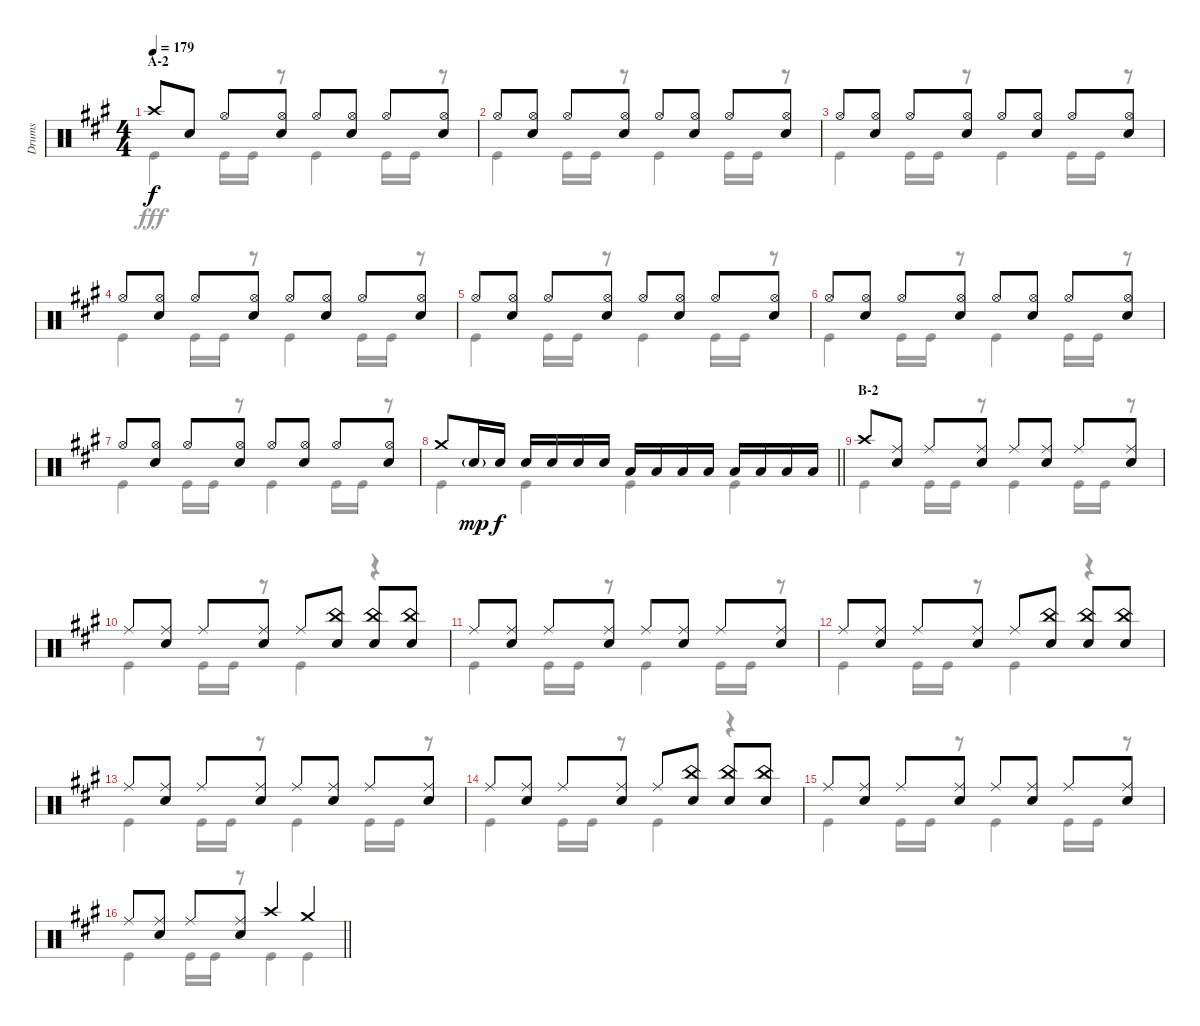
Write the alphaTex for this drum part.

\track ("Drums" "Drums") {instrument percussion}
\staff {score}
\articulation defaults
\voice
\ts (4 4)
\section ("" "A-2")
\tempo 179
\clef neutral
\ks a "Crash high (hit)".8{dy f} "Snare (hit) 2".8 "Hi-Hat (open)".8
("Hi-Hat (open)" "Snare (hit) 2").8 "Hi-Hat (open)".8 ("Hi-Hat (open)" "Snare (hit) 2").8 "Hi-Hat (open)".8 ("Hi-Hat (open)" "Snare (hit) 2").8 |
"Hi-Hat (open)".8 ("Hi-Hat (open)" "Snare (hit) 2").8 "Hi-Hat (open)".8 ("Hi-Hat (open)" "Snare (hit) 2").8 "Hi-Hat (open)".8 ("Hi-Hat (open)" "Snare (hit) 2").8 "Hi-Hat (open)".8 ("Hi-Hat (open)" "Snare (hit) 2").8 |
"Hi-Hat (open)".8 ("Hi-Hat (open)" "Snare (hit) 2").8 "Hi-Hat (open)".8 ("Hi-Hat (open)" "Snare (hit) 2").8 "Hi-Hat (open)".8 ("Hi-Hat (open)" "Snare (hit) 2").8 "Hi-Hat (open)".8 ("Hi-Hat (open)" "Snare (hit) 2").8 |
"Hi-Hat (open)".8 ("Hi-Hat (open)" "Snare (hit) 2").8 "Hi-Hat (open)".8 ("Hi-Hat (open)" "Snare (hit) 2").8 "Hi-Hat (open)".8 ("Hi-Hat (open)" "Snare (hit) 2").8 "Hi-Hat (open)".8 ("Hi-Hat (open)" "Snare (hit) 2").8 |
"Hi-Hat (open)".8 ("Hi-Hat (open)" "Snare (hit) 2").8 "Hi-Hat (open)".8 ("Hi-Hat (open)" "Snare (hit) 2").8 "Hi-Hat (open)".8 ("Hi-Hat (open)" "Snare (hit) 2").8 "Hi-Hat (open)".8 ("Hi-Hat (open)" "Snare (hit) 2").8 |
"Hi-Hat (open)".8 ("Hi-Hat (open)" "Snare (hit) 2").8 "Hi-Hat (open)".8 ("Hi-Hat (open)" "Snare (hit) 2").8 "Hi-Hat (open)".8 ("Hi-Hat (open)" "Snare (hit) 2").8 "Hi-Hat (open)".8 ("Hi-Hat (open)" "Snare (hit) 2").8 |
"Hi-Hat (open)".8 ("Hi-Hat (open)" "Snare (hit) 2").8 "Hi-Hat (open)".8 ("Hi-Hat (open)" "Snare (hit) 2").8 "Hi-Hat (open)".8 ("Hi-Hat (open)" "Snare (hit) 2").8 "Hi-Hat (open)".8 ("Hi-Hat (open)" "Snare (hit) 2").8 |
\barLineRight lightlight "Crash medium (hit)".8 "Snare (hit) 2"{g}.16{dy mp} "Snare (hit) 2".16{dy f} "Snare (hit) 2".16 "Snare (hit) 2".16 "Snare (hit) 2".16 "Snare (hit) 2".16 "Low Tom (hit)".16 "Low Tom (hit)".16 "Low Tom (hit)".16 "Low Tom (hit)".16 "Low Tom (hit)".16 "Low Tom (hit)".16 "Low Tom (hit)".16 "Low Tom (hit)".16
|
\section ("" "B-2")
"Crash high (hit)".8 ("Ride (middle)" "Snare (hit) 2").8 "Ride (middle)".8 ("Ride (middle)" "Snare (hit) 2").8 "Ride (middle)".8 ("Ride (middle)" "Snare (hit) 2").8 "Ride (middle)".8 ("Ride (middle)" "Snare (hit) 2").8 |
"Ride (middle)".8 ("Ride (middle)" "Snare (hit) 2").8 "Ride (middle)".8 ("Ride (middle)" "Snare (hit) 2").8 "Ride (middle)".8 ("China (hit)" "Snare (hit) 2").8 ("China (hit)" "Snare (hit) 2").8 ("China (hit)" "Snare (hit) 2").8 |
"Ride (middle)".8 ("Ride (middle)" "Snare (hit) 2").8 "Ride (middle)".8 ("Ride (middle)" "Snare (hit) 2").8 "Ride (middle)".8 ("Ride (middle)" "Snare (hit) 2").8 "Ride (middle)".8 ("Ride (middle)" "Snare (hit) 2").8 |
"Ride (middle)".8 ("Ride (middle)" "Snare (hit) 2").8 "Ride (middle)".8 ("Ride (middle)" "Snare (hit) 2").8 "Ride (middle)".8 ("China (hit)" "Snare (hit) 2").8 ("China (hit)" "Snare (hit) 2").8 ("China (hit)" "Snare (hit) 2").8 |
"Ride (middle)".8 ("Ride (middle)" "Snare (hit) 2").8 "Ride (middle)".8 ("Ride (middle)" "Snare (hit) 2").8 "Ride (middle)".8 ("Ride (middle)" "Snare (hit) 2").8 "Ride (middle)".8 ("Ride (middle)" "Snare (hit) 2").8 |
"Ride (middle)".8 ("Ride (middle)" "Snare (hit) 2").8 "Ride (middle)".8 ("Ride (middle)" "Snare (hit) 2").8 "Ride (middle)".8 ("China (hit)" "Snare (hit) 2").8 ("China (hit)" "Snare (hit) 2").8 ("China (hit)" "Snare (hit) 2").8 |
"Ride (middle)".8 ("Ride (middle)" "Snare (hit) 2").8 "Ride (middle)".8 ("Ride (middle)" "Snare (hit) 2").8 "Ride (middle)".8 ("Ride (middle)" "Snare (hit) 2").8 "Ride (middle)".8 ("Ride (middle)" "Snare (hit) 2").8 |
\barLineRight lightlight "Ride (middle)".8
("Ride (middle)" "Snare (hit) 2").8 "Ride (middle)".8 ("Ride (middle)" "Snare (hit) 2").8 "Crash high (hit)".4 "Crash medium (hit)".4
\voice
\clef neutral
\ottava regular
\simile none
\ks a "Kick (hit)".4{dy fff} "Kick (hit)".16 "Kick (hit)".16
r.8 "Kick (hit)".4 "Kick (hit)".16 "Kick (hit)".16 r.8 |
"Kick (hit)".4 "Kick (hit)".16 "Kick (hit)".16 r.8 "Kick (hit)".4 "Kick (hit)".16 "Kick (hit)".16 r.8 |
"Kick (hit)".4 "Kick (hit)".16 "Kick (hit)".16 r.8 "Kick (hit)".4 "Kick (hit)".16 "Kick (hit)".16 r.8 |
"Kick (hit)".4 "Kick (hit)".16 "Kick (hit)".16 r.8 "Kick (hit)".4 "Kick (hit)".16 "Kick (hit)".16 r.8 |
"Kick (hit)".4 "Kick (hit)".16 "Kick (hit)".16 r.8 "Kick (hit)".4 "Kick (hit)".16 "Kick (hit)".16 r.8 |
"Kick (hit)".4 "Kick (hit)".16 "Kick (hit)".16 r.8 "Kick (hit)".4 "Kick (hit)".16 "Kick (hit)".16 r.8 |
"Kick (hit)".4 "Kick (hit)".16 "Kick (hit)".16 r.8 "Kick (hit)".4 "Kick (hit)".16 "Kick (hit)".16 r.8 |
\barLineRight lightlight "Kick (hit)".4 "Kick (hit)".4 "Kick (hit)".4 "Kick (hit)".4
|
"Kick (hit)".4 "Kick (hit)".16 "Kick (hit)".16 r.8 "Kick (hit)".4 "Kick (hit)".16 "Kick (hit)".16 r.8 |
"Kick (hit)".4 "Kick (hit)".16 "Kick (hit)".16 r.8 "Kick (hit)".4 r.4 |
"Kick (hit)".4 "Kick (hit)".16 "Kick (hit)".16 r.8 "Kick (hit)".4 "Kick (hit)".16 "Kick (hit)".16 r.8 |
"Kick (hit)".4 "Kick (hit)".16 "Kick (hit)".16 r.8 "Kick (hit)".4 r.4 |
"Kick (hit)".4 "Kick (hit)".16 "Kick (hit)".16 r.8 "Kick (hit)".4 "Kick (hit)".16 "Kick (hit)".16 r.8 |
"Kick (hit)".4 "Kick (hit)".16 "Kick (hit)".16 r.8 "Kick (hit)".4 r.4 |
"Kick (hit)".4 "Kick (hit)".16 "Kick (hit)".16 r.8 "Kick (hit)".4 "Kick (hit)".16 "Kick (hit)".16 r.8 |
\barLineRight lightlight "Kick (hit)".4 "Kick (hit)".16 "Kick (hit)".16
r.8 "Kick (hit)".4 "Kick (hit)".4
